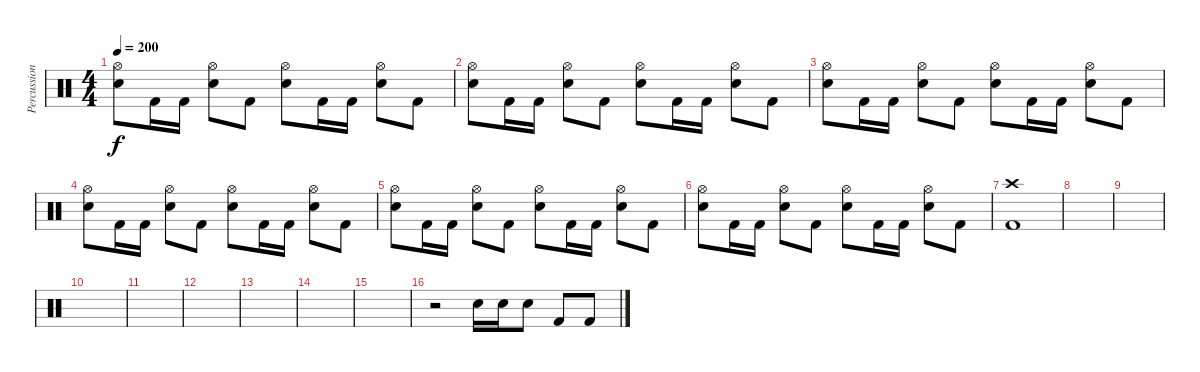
\track ("Percussion" "Percussion") {instrument percussion}
\staff {score}
\articulation defaults
\ts (4 4)
\tempo 200
\clef neutral
\ks c
("Hi-Hat (open)" "Electric Snare (hit)").8{dy f} "Kick (hit) 2".16 "Kick (hit) 2".16 ("Hi-Hat (open)" "Electric Snare (hit)").8 "Kick (hit) 2".8 ("Hi-Hat (open)" "Electric Snare (hit)").8 "Kick (hit) 2".16 "Kick (hit) 2".16 ("Hi-Hat (open)" "Electric Snare (hit)").8 "Kick (hit) 2".8 |
("Hi-Hat (open)" "Electric Snare (hit)").8 "Kick (hit) 2".16 "Kick (hit) 2".16 ("Hi-Hat (open)" "Electric Snare (hit)").8 "Kick (hit) 2".8 ("Hi-Hat (open)" "Electric Snare (hit)").8 "Kick (hit) 2".16 "Kick (hit) 2".16 ("Hi-Hat (open)" "Electric Snare (hit)").8 "Kick (hit) 2".8 |
("Hi-Hat (open)" "Electric Snare (hit)").8 "Kick (hit) 2".16 "Kick (hit) 2".16 ("Hi-Hat (open)" "Electric Snare (hit)").8 "Kick (hit) 2".8 ("Hi-Hat (open)" "Electric Snare (hit)").8 "Kick (hit) 2".16 "Kick (hit) 2".16 ("Hi-Hat (open)" "Electric Snare (hit)").8 "Kick (hit) 2".8 |
("Hi-Hat (open)" "Electric Snare (hit)").8 "Kick (hit) 2".16 "Kick (hit) 2".16 ("Hi-Hat (open)" "Electric Snare (hit)").8 "Kick (hit) 2".8 ("Hi-Hat (open)" "Electric Snare (hit)").8 "Kick (hit) 2".16 "Kick (hit) 2".16 ("Hi-Hat (open)" "Electric Snare (hit)").8 "Kick (hit) 2".8 |
("Hi-Hat (open)" "Electric Snare (hit)").8 "Kick (hit) 2".16 "Kick (hit) 2".16 ("Hi-Hat (open)" "Electric Snare (hit)").8 "Kick (hit) 2".8 ("Hi-Hat (open)" "Electric Snare (hit)").8 "Kick (hit) 2".16 "Kick (hit) 2".16 ("Hi-Hat (open)" "Electric Snare (hit)").8 "Kick (hit) 2".8 |
("Hi-Hat (open)" "Electric Snare (hit)").8 "Kick (hit) 2".16 "Kick (hit) 2".16 ("Hi-Hat (open)" "Electric Snare (hit)").8 "Kick (hit) 2".8 ("Hi-Hat (open)" "Electric Snare (hit)").8 "Kick (hit) 2".16 "Kick (hit) 2".16 ("Hi-Hat (open)" "Electric Snare (hit)").8 "Kick (hit) 2".8 |
("Crash high (hit)" "Kick (hit) 2").1 |
|
|
|
|
|
|
|
|
r.2 "Electric Snare (hit)".16 "Electric Snare (hit)".16 "Electric Snare (hit)".8 "Kick (hit) 2".8 "Kick (hit) 2".8
